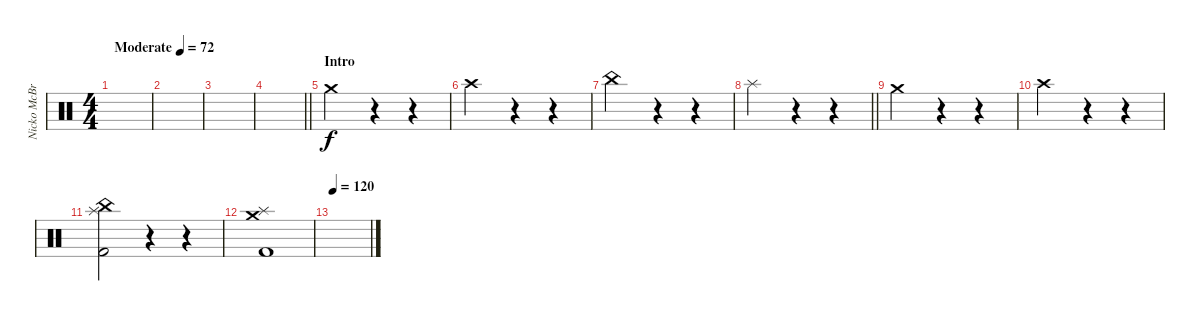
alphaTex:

\track ("Nicko McBrain" "Nicko McBr") {instrument percussion}
\staff {score}
\articulation defaults
\ts (4 4)
\tempo (72 "Moderate")
\clef neutral
\ks c
|
|
|
\barLineRight lightlight
|
\section ("" "Intro")
"Crash medium (hit)".2{volume 16} r.4 r.4{volume 0} |
"Crash high (hit)".2{volume 16} r.4 r.4{volume 0} |
"China (hit)".2{volume 16} r.4 r.4{volume 0} |
\barLineRight lightlight "Splash (hit)".2{volume 16}
r.4 r.4{volume 0} |
"Crash medium (hit)".2{volume 16} r.4 r.4{volume 0} |
"Crash high (hit)".2{volume 16} r.4 r.4{volume 0} |
("Splash (hit)" "China (hit)" "Kick (hit) 2").2{volume 16} r.4 r.4{volume 0} |
("Crash medium (hit)" "Splash (hit)" "Kick (hit) 2").1{volume 16} |
\tempo 120
